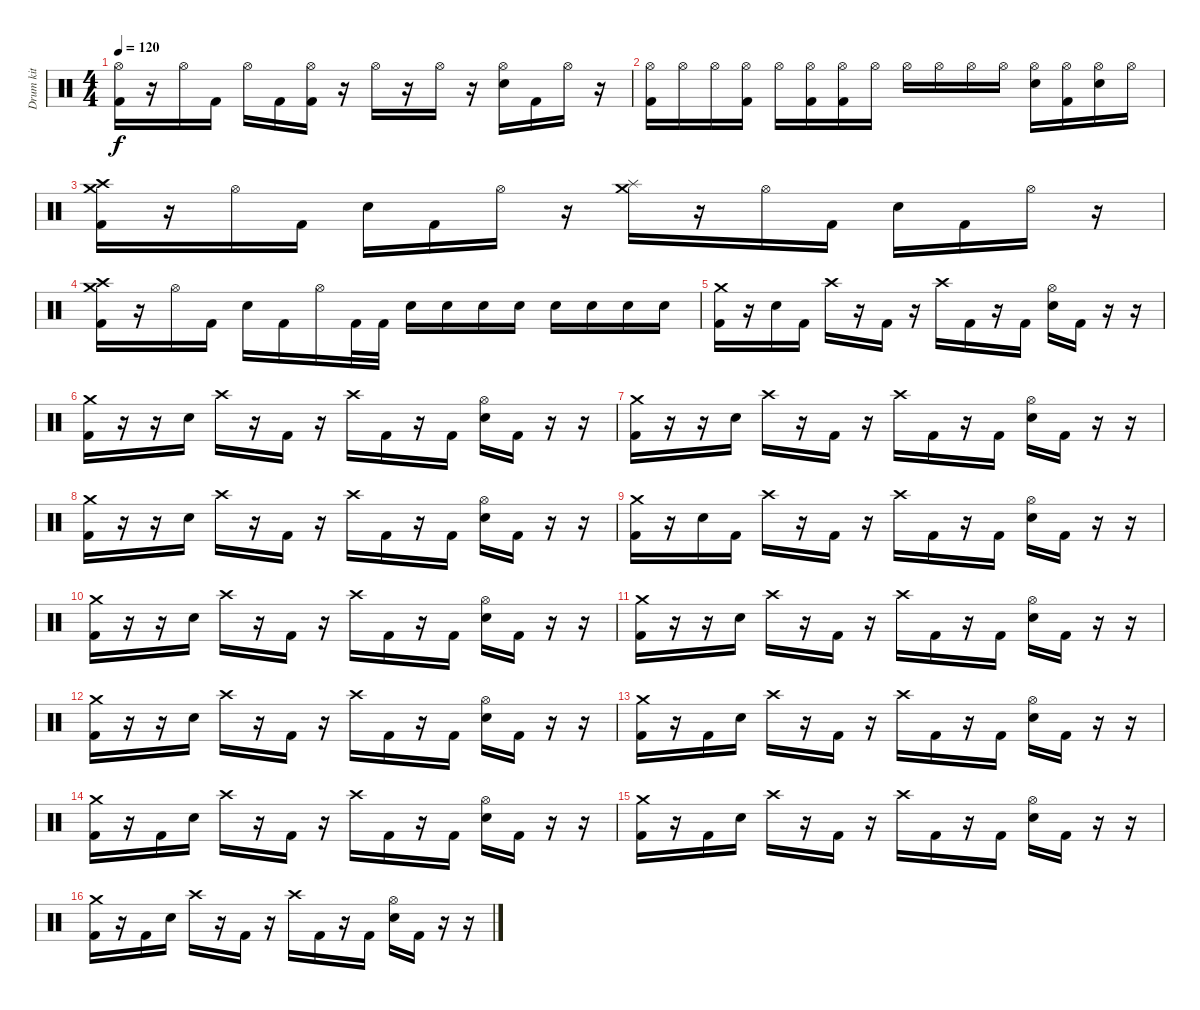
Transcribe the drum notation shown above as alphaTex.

\track ("Drum kit" "Drum kit") {instrument percussion}
\staff {score}
\articulation defaults
\ts (4 4)
\tempo 120
\clef neutral
\ks c
("Hi-Hat (open)" "Kick (hit) 2").16{dy f} r.16 "Hi-Hat (open)".16 "Kick (hit) 2".16 "Hi-Hat (open)".16 "Kick (hit) 2".16 ("Hi-Hat (open)" "Kick (hit) 2").16 r.16 "Hi-Hat (open)".16 r.16 "Hi-Hat (open)".16 r.16 ("Hi-Hat (open)" "Snare (hit) 2").16 "Kick (hit) 2".16 "Hi-Hat (open)".16 r.16 |
("Hi-Hat (open)" "Kick (hit) 2").16 "Hi-Hat (open)".16 "Hi-Hat (open)".16 ("Hi-Hat (open)" "Kick (hit) 2").16 "Hi-Hat (open)".16 ("Hi-Hat (open)" "Kick (hit) 2").16 ("Hi-Hat (open)" "Kick (hit) 2").16 "Hi-Hat (open)".16 "Hi-Hat (open)".16 "Hi-Hat (open)".16 "Hi-Hat (open)".16 "Hi-Hat (open)".16 ("Hi-Hat (open)" "Snare (hit) 2").16 ("Hi-Hat (open)" "Kick (hit) 2").16 ("Hi-Hat (open)" "Snare (hit) 2").16 "Hi-Hat (open)".16 |
("Crash high (hit)" "Crash medium (hit)" "Kick (hit) 2").16 r.16 "Hi-Hat (open)".16 "Kick (hit) 2".16 "Snare (hit) 2".16 "Kick (hit) 2".16 "Hi-Hat (open)".16 r.16 ("Splash (hit)" "Crash medium (hit)").16 r.16 "Hi-Hat (open)".16 "Kick (hit) 2".16 "Snare (hit) 2".16 "Kick (hit) 2".16 "Hi-Hat (open)".16 r.16 |
("Crash high (hit)" "Crash medium (hit)" "Kick (hit) 2").16 r.16 "Hi-Hat (open)".16 "Kick (hit) 2".16 "Snare (hit) 2".16 "Kick (hit) 2".16 "Hi-Hat (open)".16 "Kick (hit) 2".32 "Kick (hit) 2".32 "Snare (hit) 2".16 "Snare (hit) 2".16 "Snare (hit) 2".16 "Snare (hit) 2".16 "Snare (hit) 2".16 "Snare (hit) 2".16 "Snare (hit) 2".16 "Snare (hit) 2".16 |
("Kick (hit) 2" "Crash medium (hit)").16 r.16 "Snare (hit) 2".16 "Kick (hit) 2".16 "Crash high (hit)".16 r.16 "Kick (hit) 2".16 r.16 "Crash high (hit)".16 "Kick (hit) 2".16 r.16 "Kick (hit) 2".16 ("Snare (hit) 2" "Hi-Hat (open)").16 "Kick (hit) 2".16 r.16 r.16 |
("Kick (hit) 2" "Crash medium (hit)").16 r.16 r.16 "Snare (hit) 2".16 "Crash high (hit)".16 r.16 "Kick (hit) 2".16 r.16 "Crash high (hit)".16 "Kick (hit) 2".16 r.16 "Kick (hit) 2".16 ("Snare (hit) 2" "Hi-Hat (open)").16 "Kick (hit) 2".16 r.16 r.16 |
("Kick (hit) 2" "Crash medium (hit)").16 r.16 r.16 "Snare (hit) 2".16 "Crash high (hit)".16 r.16 "Kick (hit) 2".16 r.16 "Crash high (hit)".16 "Kick (hit) 2".16 r.16 "Kick (hit) 2".16 ("Snare (hit) 2" "Hi-Hat (open)").16 "Kick (hit) 2".16 r.16 r.16 |
("Kick (hit) 2" "Crash medium (hit)").16 r.16 r.16 "Snare (hit) 2".16 "Crash high (hit)".16 r.16 "Kick (hit) 2".16 r.16 "Crash high (hit)".16 "Kick (hit) 2".16 r.16 "Kick (hit) 2".16 ("Snare (hit) 2" "Hi-Hat (open)").16 "Kick (hit) 2".16 r.16 r.16 |
("Kick (hit) 2" "Crash medium (hit)").16 r.16 "Snare (hit) 2".16 "Kick (hit) 2".16 "Crash high (hit)".16 r.16 "Kick (hit) 2".16 r.16 "Crash high (hit)".16 "Kick (hit) 2".16 r.16 "Kick (hit) 2".16 ("Snare (hit) 2" "Hi-Hat (open)").16 "Kick (hit) 2".16 r.16 r.16 |
("Kick (hit) 2" "Crash medium (hit)").16 r.16 r.16 "Snare (hit) 2".16 "Crash high (hit)".16 r.16 "Kick (hit) 2".16 r.16 "Crash high (hit)".16 "Kick (hit) 2".16 r.16 "Kick (hit) 2".16 ("Snare (hit) 2" "Hi-Hat (open)").16 "Kick (hit) 2".16 r.16 r.16 |
("Kick (hit) 2" "Crash medium (hit)").16 r.16 r.16 "Snare (hit) 2".16 "Crash high (hit)".16 r.16 "Kick (hit) 2".16 r.16 "Crash high (hit)".16 "Kick (hit) 2".16 r.16 "Kick (hit) 2".16 ("Snare (hit) 2" "Hi-Hat (open)").16 "Kick (hit) 2".16 r.16 r.16 |
("Kick (hit) 2" "Crash medium (hit)").16 r.16 r.16 "Snare (hit) 2".16 "Crash high (hit)".16 r.16 "Kick (hit) 2".16 r.16 "Crash high (hit)".16 "Kick (hit) 2".16 r.16 "Kick (hit) 2".16 ("Snare (hit) 2" "Hi-Hat (open)").16 "Kick (hit) 2".16 r.16 r.16 |
("Kick (hit) 2" "Crash medium (hit)").16 r.16 "Kick (hit) 2".16 "Snare (hit) 2".16 "Crash high (hit)".16 r.16 "Kick (hit) 2".16 r.16 "Crash high (hit)".16 "Kick (hit) 2".16 r.16 "Kick (hit) 2".16 ("Snare (hit) 2" "Hi-Hat (open)").16 "Kick (hit) 2".16 r.16 r.16 |
("Kick (hit) 2" "Crash medium (hit)").16 r.16 "Kick (hit) 2".16 "Snare (hit) 2".16 "Crash high (hit)".16 r.16 "Kick (hit) 2".16 r.16 "Crash high (hit)".16 "Kick (hit) 2".16 r.16 "Kick (hit) 2".16 ("Snare (hit) 2" "Hi-Hat (open)").16 "Kick (hit) 2".16 r.16 r.16 |
("Kick (hit) 2" "Crash medium (hit)").16 r.16 "Kick (hit) 2".16 "Snare (hit) 2".16 "Crash high (hit)".16 r.16 "Kick (hit) 2".16 r.16 "Crash high (hit)".16 "Kick (hit) 2".16 r.16 "Kick (hit) 2".16 ("Snare (hit) 2" "Hi-Hat (open)").16 "Kick (hit) 2".16 r.16 r.16 |
("Kick (hit) 2" "Crash medium (hit)").16 r.16 "Kick (hit) 2".16 "Snare (hit) 2".16 "Crash high (hit)".16 r.16 "Kick (hit) 2".16 r.16 "Crash high (hit)".16 "Kick (hit) 2".16 r.16 "Kick (hit) 2".16 ("Snare (hit) 2" "Hi-Hat (open)").16 "Kick (hit) 2".16 r.16 r.16
